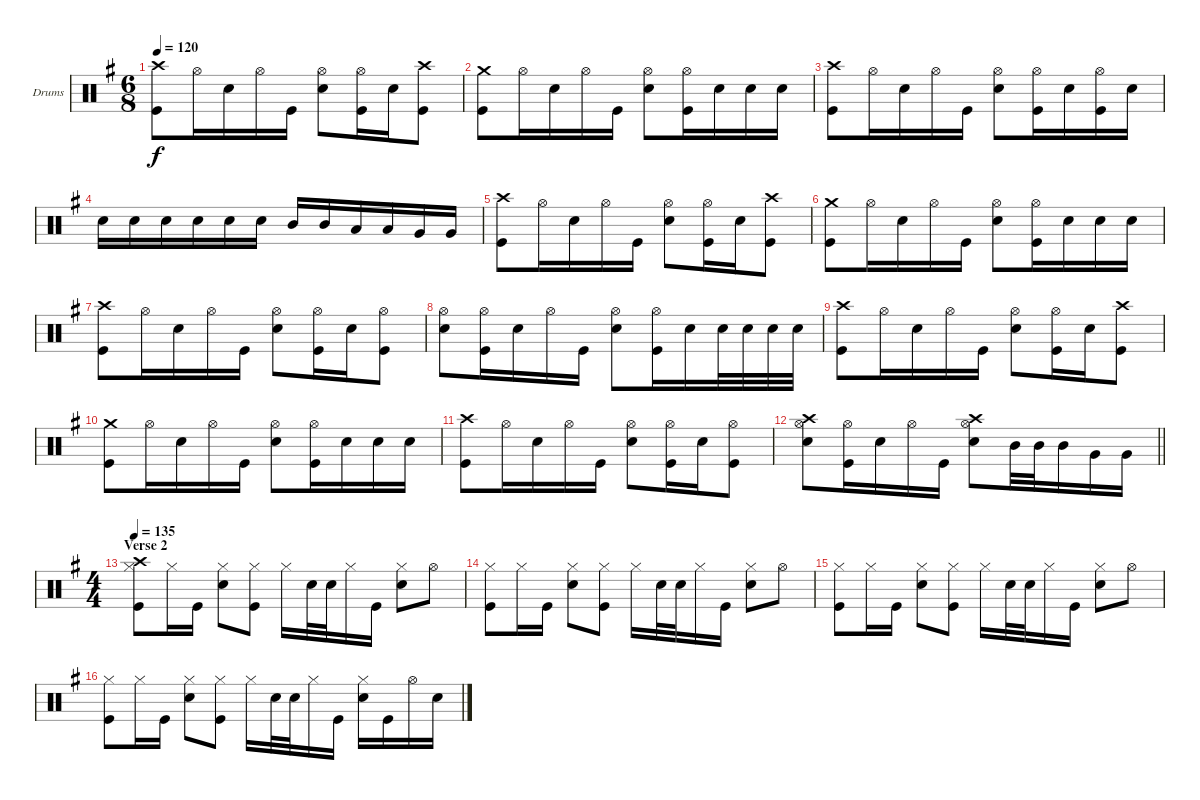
\bracketExtendMode groupsimilarinstruments
\firstSystemTrackNameOrientation horizontal
\otherSystemsTrackNameOrientation horizontal
\track ("drums (Anton Zulganov)" "Drums") {instrument percussion}
\staff {score}
\articulation defaults
\ts (6 8)
\tempo 120
\clef neutral
\ks eminor
("Kick (hit)" "Crash high (hit)").8{dy f} "Hi-Hat (open)".16 "Snare (hit) 2".16 "Hi-Hat (open)".16 "Kick (hit)".16 ("Snare (hit) 2" "Hi-Hat (open)").8 ("Kick (hit)" "Hi-Hat (open)").16 "Snare (hit) 2".16 ("Kick (hit)" "Crash high (hit)").8 |
("Kick (hit)" "Crash medium (hit)").8 "Hi-Hat (open)".16 "Snare (hit) 2".16 "Hi-Hat (open)".16 "Kick (hit)".16 ("Snare (hit) 2" "Hi-Hat (open)").8 ("Kick (hit)" "Hi-Hat (open)").16 "Snare (hit) 2".16 "Snare (hit) 2".16 "Snare (hit) 2".16 |
("Kick (hit)" "Crash high (hit)").8 "Hi-Hat (open)".16 "Snare (hit) 2".16 "Hi-Hat (open)".16 "Kick (hit)".16 ("Snare (hit) 2" "Hi-Hat (open)").8 ("Kick (hit)" "Hi-Hat (open)").16 "Snare (hit) 2".16 ("Kick (hit)" "Hi-Hat (open)").16 "Snare (hit) 2".16 |
"Snare (hit) 2".16 "Snare (hit) 2".16 "Snare (hit) 2".16 "Snare (hit) 2".16 "Snare (hit) 2".16 "Snare (hit) 2".16 "Mid Tom (hit)".16 "Mid Tom (hit)".16 "Low Tom (hit)".16 "Low Tom (hit)".16 "Very Low Tom (hit)".16 "Very Low Tom (hit)".16 |
("Kick (hit)" "Crash high (hit)").8 "Hi-Hat (open)".16 "Snare (hit) 2".16 "Hi-Hat (open)".16 "Kick (hit)".16 ("Snare (hit) 2" "Hi-Hat (open)").8 ("Kick (hit)" "Hi-Hat (open)").16 "Snare (hit) 2".16 ("Kick (hit)" "Crash high (hit)").8 |
("Kick (hit)" "Crash medium (hit)").8 "Hi-Hat (open)".16 "Snare (hit) 2".16 "Hi-Hat (open)".16 "Kick (hit)".16 ("Snare (hit) 2" "Hi-Hat (open)").8 ("Kick (hit)" "Hi-Hat (open)").16 "Snare (hit) 2".16 "Snare (hit) 2".16 "Snare (hit) 2".16 |
("Kick (hit)" "Crash high (hit)").8 "Hi-Hat (open)".16 "Snare (hit) 2".16 "Hi-Hat (open)".16 "Kick (hit)".16 ("Snare (hit) 2" "Hi-Hat (open)").8 ("Kick (hit)" "Hi-Hat (open)").16 "Snare (hit) 2".16 ("Kick (hit)" "Hi-Hat (open)").8 |
("Snare (hit) 2" "Hi-Hat (open)").8 ("Kick (hit)" "Hi-Hat (open)").16 "Snare (hit) 2".16 "Hi-Hat (open)".16 "Kick (hit)".16 ("Snare (hit) 2" "Hi-Hat (open)").8 ("Kick (hit)" "Hi-Hat (open)").16 "Snare (hit) 2".16 "Snare (hit) 2".32 "Snare (hit) 2".32 "Snare (hit) 2".32 "Snare (hit) 2".32 |
("Kick (hit)" "Crash high (hit)").8 "Hi-Hat (open)".16 "Snare (hit) 2".16 "Hi-Hat (open)".16 "Kick (hit)".16 ("Snare (hit) 2" "Hi-Hat (open)").8 ("Kick (hit)" "Hi-Hat (open)").16 "Snare (hit) 2".16 ("Kick (hit)" "Crash high (hit)").8 |
("Kick (hit)" "Crash medium (hit)").8 "Hi-Hat (open)".16 "Snare (hit) 2".16 "Hi-Hat (open)".16 "Kick (hit)".16 ("Snare (hit) 2" "Hi-Hat (open)").8 ("Kick (hit)" "Hi-Hat (open)").16 "Snare (hit) 2".16 "Snare (hit) 2".16 "Snare (hit) 2".16 |
("Kick (hit)" "Crash high (hit)").8 "Hi-Hat (open)".16 "Snare (hit) 2".16 "Hi-Hat (open)".16 "Kick (hit)".16 ("Snare (hit) 2" "Hi-Hat (open)").8 ("Kick (hit)" "Hi-Hat (open)").16 "Snare (hit) 2".16 ("Kick (hit)" "Hi-Hat (open)").8 |
\barLineRight lightlight
("Snare (hit) 2" "Hi-Hat (open)" "Crash high (hit)").8 ("Kick (hit)" "Hi-Hat (open)").16 "Snare (hit) 2".16 "Hi-Hat (open)".16 "Kick (hit)".16 ("Snare (hit) 2" "Hi-Hat (open)" "Crash high (hit)").8 "Mid Tom (hit)".32 "Mid Tom (hit)".32 "Mid Tom (hit)".16 "Very Low Tom (hit)".16 "Very Low Tom (hit)".16 |
\ts (4 4)
\beaming (8 2 2 2 2)
\section ("" "Verse 2")
\tempo 135
("Kick (hit)" "Crash high (hit)" "Hi-Hat (closed)").8 "Hi-Hat (closed)".16 "Kick (hit)".16 ("Snare (hit) 2" "Hi-Hat (closed)").8 ("Kick (hit)" "Hi-Hat (closed)").8 "Hi-Hat (closed)".16 "Snare (hit) 2".32 "Snare (hit) 2".32 "Hi-Hat (closed)".16 "Kick (hit)".16 ("Snare (hit) 2" "Hi-Hat (closed)").8 "Hi-Hat (open)".8 |
("Kick (hit)" "Hi-Hat (closed)").8 "Hi-Hat (closed)".16 "Kick (hit)".16 ("Snare (hit) 2" "Hi-Hat (closed)").8 ("Kick (hit)" "Hi-Hat (closed)").8 "Hi-Hat (closed)".16 "Snare (hit) 2".32 "Snare (hit) 2".32 "Hi-Hat (closed)".16 "Kick (hit)".16 ("Snare (hit) 2" "Hi-Hat (closed)").8 "Hi-Hat (open)".8 |
("Kick (hit)" "Hi-Hat (closed)").8 "Hi-Hat (closed)".16 "Kick (hit)".16 ("Snare (hit) 2" "Hi-Hat (closed)").8 ("Kick (hit)" "Hi-Hat (closed)").8 "Hi-Hat (closed)".16 "Snare (hit) 2".32 "Snare (hit) 2".32 "Hi-Hat (closed)".16 "Kick (hit)".16 ("Snare (hit) 2" "Hi-Hat (closed)").8 "Hi-Hat (open)".8 |
("Kick (hit)" "Hi-Hat (closed)").8 "Hi-Hat (closed)".16 "Kick (hit)".16 ("Snare (hit) 2" "Hi-Hat (closed)").8 ("Kick (hit)" "Hi-Hat (closed)").8 "Hi-Hat (closed)".16 "Snare (hit) 2".32 "Snare (hit) 2".32 "Hi-Hat (closed)".16 "Kick (hit)".16 ("Snare (hit) 2" "Hi-Hat (closed)").16 "Kick (hit)".16 "Hi-Hat (open)".16 "Snare (hit) 2".16
